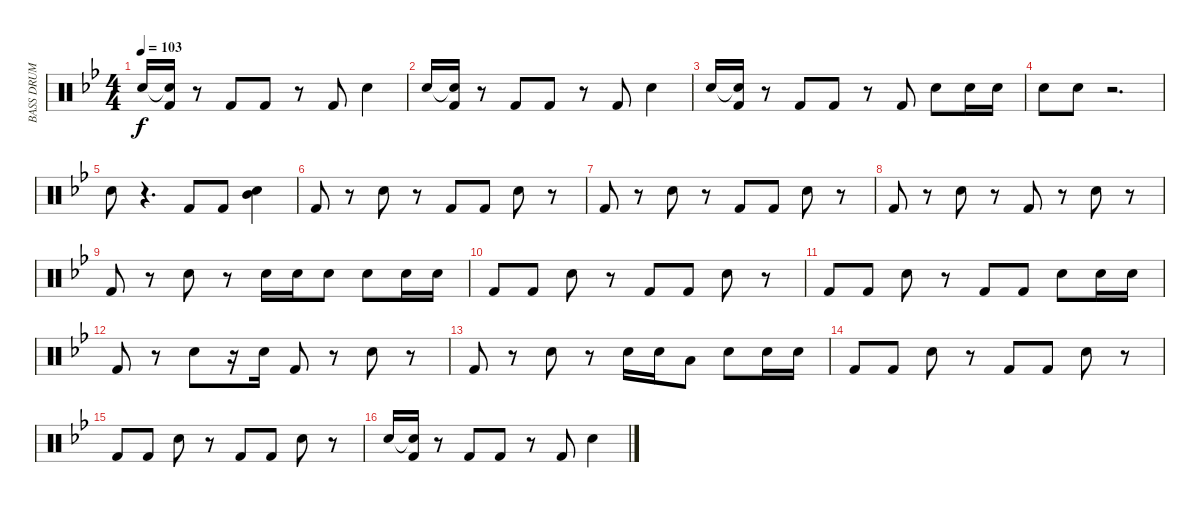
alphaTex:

\track ("BASS DRUM / SNARE / TOMS" "BASS DRUM ") {instrument percussion}
\staff {score}
\articulation defaults
\ts (4 4)
\tempo 103
\clef neutral
\ks bb "Snare (hit) 2".16{dy f}
("Snare (hit) 2"{t} "Kick (hit) 2").16 r.8 "Kick (hit) 2".8 "Kick (hit) 2".8 r.8 "Kick (hit) 2".8 "Snare (hit) 2".4 |
"Snare (hit) 2".16 ("Snare (hit) 2"{t} "Kick (hit) 2").16 r.8 "Kick (hit) 2".8 "Kick (hit) 2".8 r.8 "Kick (hit) 2".8 "Snare (hit) 2".4 |
"Snare (hit) 2".16 ("Snare (hit) 2"{t} "Kick (hit) 2").16 r.8 "Kick (hit) 2".8 "Kick (hit) 2".8 r.8 "Kick (hit) 2".8 "Snare (hit) 2".8 "Snare (hit) 2".16 "Snare (hit) 2".16 |
"Snare (hit) 2".8 "Electric Snare (hit)".8 r.2{d} |
"Snare (hit) 2".8 r.4{d} "Kick (hit) 2".8 "Kick (hit) 2".8 ("Snare (hit) 2" "Mid Tom (hit)").4 |
"Kick (hit) 2".8 r.8 "Snare (hit) 2".8 r.8 "Kick (hit) 2".8 "Kick (hit) 2".8 "Snare (hit) 2".8 r.8 |
"Kick (hit) 2".8 r.8 "Snare (hit) 2".8 r.8 "Kick (hit) 2".8 "Kick (hit) 2".8 "Snare (hit) 2".8 r.8 |
"Kick (hit) 2".8 r.8 "Snare (hit) 2".8 r.8 "Kick (hit) 2".8 r.8 "Snare (hit) 2".8 r.8 |
"Kick (hit) 2".8 r.8 "Snare (hit) 2".8 r.8 "Snare (hit) 2".16 "Snare (hit) 2".16 "Snare (hit) 2".8 "Snare (hit) 2".8 "Snare (hit) 2".16 "Snare (hit) 2".16 |
"Kick (hit) 2".8 "Kick (hit) 2".8 "Snare (hit) 2".8 r.8 "Kick (hit) 2".8 "Kick (hit) 2".8 "Snare (hit) 2".8 r.8 |
"Kick (hit) 2".8 "Kick (hit) 2".8 "Snare (hit) 2".8 r.8 "Kick (hit) 2".8 "Kick (hit) 2".8 "Snare (hit) 2".8 "Snare (hit) 2".16 "Snare (hit) 2".16 |
"Kick (hit) 2".8 r.8 "Snare (hit) 2".8 r.16 "Snare (hit) 2".16 "Kick (hit) 2".8 r.8 "Snare (hit) 2".8 r.8 |
"Kick (hit) 2".8 r.8 "Snare (hit) 2".8 r.8 "Snare (hit) 2".16 "Snare (hit) 2".16 "Low Floor Tom (hit)".8 "Snare (hit) 2".8 "Snare (hit) 2".16 "Snare (hit) 2".16 |
"Kick (hit) 2".8 "Kick (hit) 2".8 "Snare (hit) 2".8 r.8 "Kick (hit) 2".8 "Kick (hit) 2".8 "Snare (hit) 2".8 r.8 |
"Kick (hit) 2".8 "Kick (hit) 2".8 "Snare (hit) 2".8 r.8 "Kick (hit) 2".8 "Kick (hit) 2".8 "Snare (hit) 2".8 r.8 |
"Snare (hit) 2".16 ("Snare (hit) 2"{t} "Kick (hit) 2").16 r.8 "Kick (hit) 2".8 "Kick (hit) 2".8 r.8 "Kick (hit) 2".8 "Snare (hit) 2".4
